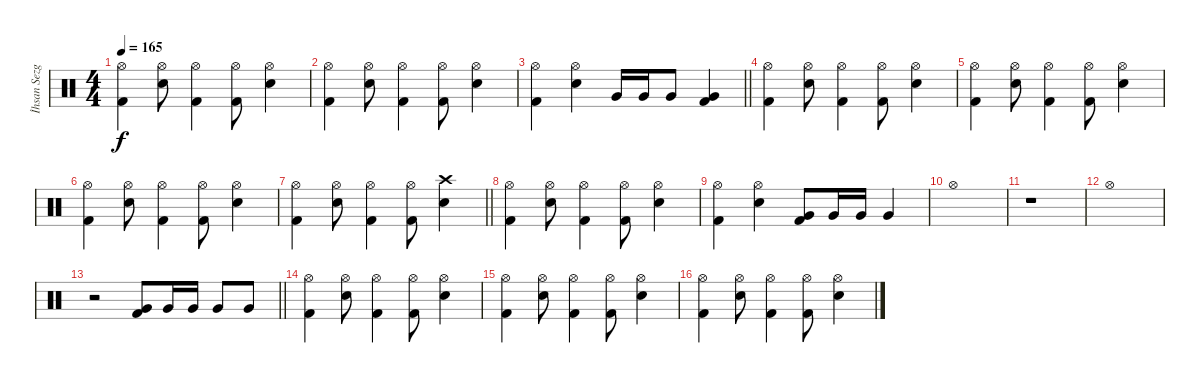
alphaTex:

\track ("İhsan Sezgin" "İhsan Sezg") {instrument percussion}
\staff {score}
\articulation defaults
\ts (4 4)
\tempo 165
\clef neutral
\ks c
("Hi-Hat (open)" "Kick (hit) 2").4{dy f} ("Snare (hit) 2" "Hi-Hat (open)").8 ("Hi-Hat (open)" "Kick (hit) 2").4 ("Hi-Hat (open)" "Kick (hit) 2").8 ("Snare (hit) 2" "Hi-Hat (open)").4 |
("Hi-Hat (open)" "Kick (hit) 2").4 ("Snare (hit) 2" "Hi-Hat (open)").8 ("Hi-Hat (open)" "Kick (hit) 2").4 ("Hi-Hat (open)" "Kick (hit) 2").8 ("Snare (hit) 2" "Hi-Hat (open)").4 |
\barLineRight lightlight
("Hi-Hat (open)" "Kick (hit) 2").4 ("Snare (hit) 2" "Hi-Hat (open)").4 "Very Low Tom (hit)".16 "Very Low Tom (hit)".16 "Very Low Tom (hit)".8 ("Kick (hit) 2" "Very Low Tom (hit)").4 |
("Hi-Hat (open)" "Kick (hit) 2").4 ("Snare (hit) 2" "Hi-Hat (open)").8 ("Hi-Hat (open)" "Kick (hit) 2").4 ("Hi-Hat (open)" "Kick (hit) 2").8 ("Snare (hit) 2" "Hi-Hat (open)").4 |
("Hi-Hat (open)" "Kick (hit) 2").4 ("Snare (hit) 2" "Hi-Hat (open)").8 ("Hi-Hat (open)" "Kick (hit) 2").4 ("Hi-Hat (open)" "Kick (hit) 2").8 ("Snare (hit) 2" "Hi-Hat (open)").4 |
("Hi-Hat (open)" "Kick (hit) 2").4 ("Snare (hit) 2" "Hi-Hat (open)").8 ("Hi-Hat (open)" "Kick (hit) 2").4 ("Hi-Hat (open)" "Kick (hit) 2").8 ("Snare (hit) 2" "Hi-Hat (open)").4 |
\barLineRight lightlight
("Hi-Hat (open)" "Kick (hit) 2").4 ("Snare (hit) 2" "Hi-Hat (open)").8 ("Hi-Hat (open)" "Kick (hit) 2").4 ("Hi-Hat (open)" "Kick (hit) 2").8 ("Snare (hit) 2" "Crash high (hit)").4 |
("Hi-Hat (open)" "Kick (hit) 2").4 ("Snare (hit) 2" "Hi-Hat (open)").8 ("Hi-Hat (open)" "Kick (hit) 2").4 ("Hi-Hat (open)" "Kick (hit) 2").8 ("Snare (hit) 2" "Hi-Hat (open)").4 |
("Hi-Hat (open)" "Kick (hit) 2").4 ("Snare (hit) 2" "Hi-Hat (open)").4 ("Kick (hit) 2" "Very Low Tom (hit)").8 "Very Low Tom (hit)".16 "Very Low Tom (hit)".16 "Very Low Tom (hit)".4 |
"Hi-Hat (open)".1 |
r.1 |
"Hi-Hat (open)".1 |
\barLineRight lightlight
r.2 ("Kick (hit) 2" "Very Low Tom (hit)").8 "Very Low Tom (hit)".16 "Very Low Tom (hit)".16 "Very Low Tom (hit)".8 "Very Low Tom (hit)".8 |
("Hi-Hat (open)" "Kick (hit) 2").4 ("Hi-Hat (open)" "Snare (hit) 2").8 ("Hi-Hat (open)" "Kick (hit) 2").4 ("Hi-Hat (open)" "Kick (hit) 2").8 ("Hi-Hat (open)" "Snare (hit) 2").4 |
("Hi-Hat (open)" "Kick (hit) 2").4 ("Hi-Hat (open)" "Snare (hit) 2").8 ("Hi-Hat (open)" "Kick (hit) 2").4 ("Hi-Hat (open)" "Kick (hit) 2").8 ("Hi-Hat (open)" "Snare (hit) 2").4 |
("Hi-Hat (open)" "Kick (hit) 2").4 ("Hi-Hat (open)" "Snare (hit) 2").8 ("Hi-Hat (open)" "Kick (hit) 2").4 ("Hi-Hat (open)" "Kick (hit) 2").8 ("Hi-Hat (open)" "Snare (hit) 2").4
